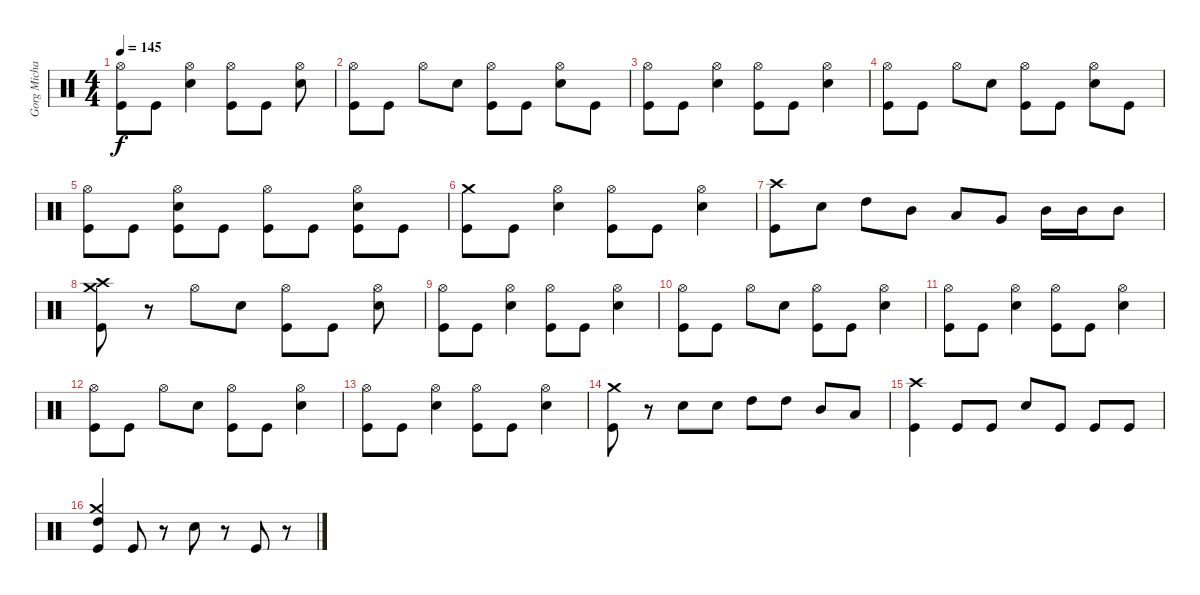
\track ("Gorg Michael" "Gorg Micha") {instrument percussion}
\staff {score}
\articulation defaults
\ts (4 4)
\tempo 145
\clef neutral
\ks c
("Hi-Hat (open)" "Kick (hit)").8{dy f} "Kick (hit)".8 ("Hi-Hat (open)" "Snare (hit) 2").4 ("Hi-Hat (open)" "Kick (hit)").8 "Kick (hit)".8 ("Hi-Hat (open)" "Snare (hit) 2").8 |
("Hi-Hat (open)" "Kick (hit)").8 "Kick (hit)".8 "Hi-Hat (open)".8 "Snare (hit) 2".8 ("Hi-Hat (open)" "Kick (hit)").8 "Kick (hit)".8 ("Hi-Hat (open)" "Snare (hit) 2").8 "Kick (hit)".8 |
("Hi-Hat (open)" "Kick (hit)").8 "Kick (hit)".8 ("Hi-Hat (open)" "Snare (hit) 2").4 ("Hi-Hat (open)" "Kick (hit)").8 "Kick (hit)".8 ("Hi-Hat (open)" "Snare (hit) 2").4 |
("Hi-Hat (open)" "Kick (hit)").8 "Kick (hit)".8 "Hi-Hat (open)".8 "Snare (hit) 2".8 ("Hi-Hat (open)" "Kick (hit)").8 "Kick (hit)".8 ("Hi-Hat (open)" "Snare (hit) 2").8 "Kick (hit)".8 |
("Hi-Hat (open)" "Kick (hit)").8 "Kick (hit)".8 ("Hi-Hat (open)" "Snare (hit) 2" "Kick (hit)").8 "Kick (hit)".8 ("Hi-Hat (open)" "Kick (hit)").8 "Kick (hit)".8 ("Hi-Hat (open)" "Snare (hit) 2" "Kick (hit)").8 "Kick (hit)".8 |
("Crash medium (hit)" "Kick (hit)").8 "Kick (hit)".8 ("Hi-Hat (open)" "Snare (hit) 2").4 ("Hi-Hat (open)" "Kick (hit)").8 "Kick (hit)".8 ("Hi-Hat (open)" "Snare (hit) 2").4 |
("Crash high (hit)" "Kick (hit)").8 "Snare (hit) 2".8 "High Tom (hit)".8 "Mid Tom (hit)".8 "Low Tom (hit)".8 "Very Low Tom (hit)".8 "Mid Tom (hit)".16 "Mid Tom (hit)".16 "Mid Tom (hit)".8 |
("Crash high (hit)" "Crash medium (hit)" "Kick (hit)").8 r.8 "Hi-Hat (open)".8 "Snare (hit) 2".8 ("Hi-Hat (open)" "Kick (hit)").8 "Kick (hit)".8 ("Hi-Hat (open)" "Snare (hit) 2").8 |
("Hi-Hat (open)" "Kick (hit)").8 "Kick (hit)".8 ("Hi-Hat (open)" "Snare (hit) 2").4 ("Hi-Hat (open)" "Kick (hit)").8 "Kick (hit)".8 ("Hi-Hat (open)" "Snare (hit) 2").4 |
("Hi-Hat (open)" "Kick (hit)").8 "Kick (hit)".8 "Hi-Hat (open)".8 "Snare (hit) 2".8 ("Hi-Hat (open)" "Kick (hit)").8 "Kick (hit)".8 ("Hi-Hat (open)" "Snare (hit) 2").4 |
("Hi-Hat (open)" "Kick (hit)").8 "Kick (hit)".8 ("Hi-Hat (open)" "Snare (hit) 2").4 ("Hi-Hat (open)" "Kick (hit)").8 "Kick (hit)".8 ("Hi-Hat (open)" "Snare (hit) 2").4 |
("Hi-Hat (open)" "Kick (hit)").8 "Kick (hit)".8 "Hi-Hat (open)".8 "Snare (hit) 2".8 ("Hi-Hat (open)" "Kick (hit)").8 "Kick (hit)".8 ("Hi-Hat (open)" "Snare (hit) 2").4 |
("Hi-Hat (open)" "Kick (hit)").8 "Kick (hit)".8 ("Hi-Hat (open)" "Snare (hit) 2").4 ("Hi-Hat (open)" "Kick (hit)").8 "Kick (hit)".8 ("Hi-Hat (open)" "Snare (hit) 2").4 |
("Crash medium (hit)" "Kick (hit)").8 r.8 "Snare (hit) 2".8 "Snare (hit) 2".8 "High Tom (hit)".8 "High Tom (hit)".8 "Mid Tom (hit)".8 "Low Tom (hit)".8 |
("Crash high (hit)" "Kick (hit)").4 "Kick (hit)".8 "Kick (hit)".8 "Snare (hit) 2".8 "Kick (hit)".8 "Kick (hit)".8 "Kick (hit)".8 |
("Crash medium (hit)" "High Tom (hit)" "Kick (hit)").4 "Kick (hit)".8 r.8 "Snare (hit) 2".8 r.8 "Kick (hit)".8 r.8
